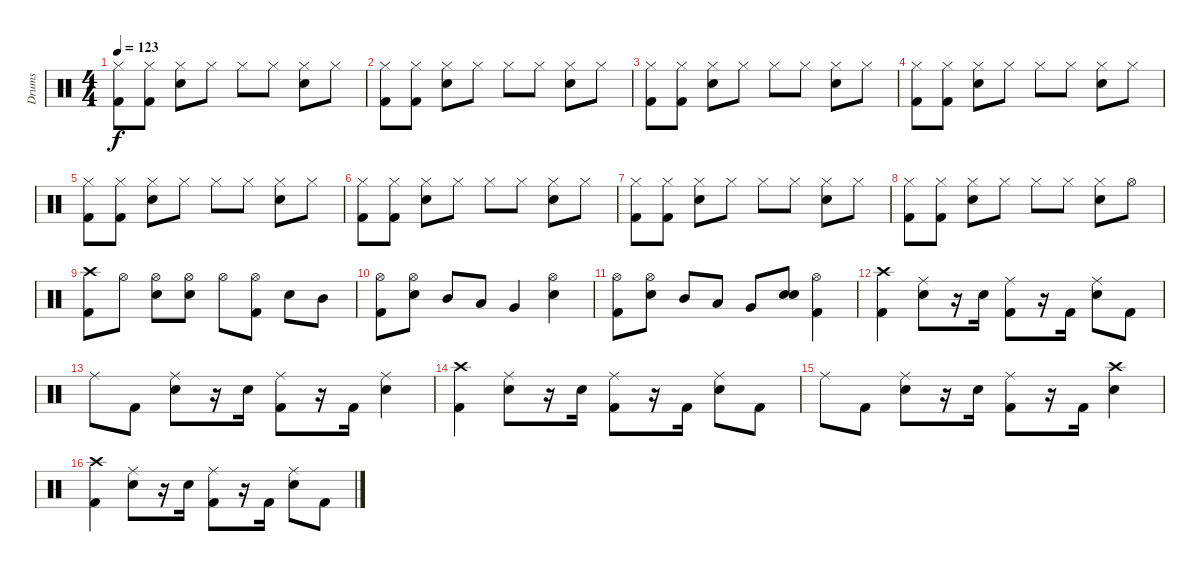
\track ("Drums" "Drums") {instrument percussion}
\staff {score}
\articulation defaults
\ts (4 4)
\tempo 123
\clef neutral
\ks c
("Hi-Hat (closed)" "Kick (hit) 2").8{dy f} ("Hi-Hat (closed)" "Kick (hit) 2").8 ("Hi-Hat (closed)" "Snare (hit) 2").8 "Hi-Hat (closed)".8 "Hi-Hat (closed)".8 "Hi-Hat (closed)".8 ("Hi-Hat (closed)" "Snare (hit) 2").8 "Hi-Hat (closed)".8 |
("Hi-Hat (closed)" "Kick (hit) 2").8 ("Hi-Hat (closed)" "Kick (hit) 2").8 ("Hi-Hat (closed)" "Snare (hit) 2").8 "Hi-Hat (closed)".8 "Hi-Hat (closed)".8 "Hi-Hat (closed)".8 ("Hi-Hat (closed)" "Snare (hit) 2").8 "Hi-Hat (closed)".8 |
("Hi-Hat (closed)" "Kick (hit) 2").8 ("Hi-Hat (closed)" "Kick (hit) 2").8 ("Hi-Hat (closed)" "Snare (hit) 2").8 "Hi-Hat (closed)".8 "Hi-Hat (closed)".8 "Hi-Hat (closed)".8 ("Hi-Hat (closed)" "Snare (hit) 2").8 "Hi-Hat (closed)".8 |
("Hi-Hat (closed)" "Kick (hit) 2").8 ("Hi-Hat (closed)" "Kick (hit) 2").8 ("Hi-Hat (closed)" "Snare (hit) 2").8 "Hi-Hat (closed)".8 "Hi-Hat (closed)".8 "Hi-Hat (closed)".8 ("Hi-Hat (closed)" "Snare (hit) 2").8 "Hi-Hat (closed)".8 |
("Hi-Hat (closed)" "Kick (hit) 2").8 ("Hi-Hat (closed)" "Kick (hit) 2").8 ("Hi-Hat (closed)" "Snare (hit) 2").8 "Hi-Hat (closed)".8 "Hi-Hat (closed)".8 "Hi-Hat (closed)".8 ("Hi-Hat (closed)" "Snare (hit) 2").8 "Hi-Hat (closed)".8 |
("Hi-Hat (closed)" "Kick (hit) 2").8 ("Hi-Hat (closed)" "Kick (hit) 2").8 ("Hi-Hat (closed)" "Snare (hit) 2").8 "Hi-Hat (closed)".8 "Hi-Hat (closed)".8 "Hi-Hat (closed)".8 ("Hi-Hat (closed)" "Snare (hit) 2").8 "Hi-Hat (closed)".8 |
("Hi-Hat (closed)" "Kick (hit) 2").8 ("Hi-Hat (closed)" "Kick (hit) 2").8 ("Hi-Hat (closed)" "Snare (hit) 2").8 "Hi-Hat (closed)".8 "Hi-Hat (closed)".8 "Hi-Hat (closed)".8 ("Hi-Hat (closed)" "Snare (hit) 2").8 "Hi-Hat (closed)".8 |
("Hi-Hat (closed)" "Kick (hit) 2").8 ("Hi-Hat (closed)" "Kick (hit) 2").8 ("Hi-Hat (closed)" "Snare (hit) 2").8 "Hi-Hat (closed)".8 "Hi-Hat (closed)".8 "Hi-Hat (closed)".8 ("Hi-Hat (closed)" "Snare (hit) 2").8 "Hi-Hat (open)".8 |
("Crash high (hit)" "Kick (hit) 2").8 "Hi-Hat (open)".8 ("Hi-Hat (open)" "Snare (hit) 2").8 ("Hi-Hat (open)" "Snare (hit) 2").8 "Hi-Hat (open)".8 ("Hi-Hat (open)" "Kick (hit) 2").8 "Snare (hit) 2".8 "Mid Tom (hit)".8 |
("Hi-Hat (open)" "Kick (hit) 2").8 ("Hi-Hat (open)" "Snare (hit) 2").8 "Mid Tom (hit)".8 "Low Tom (hit)".8 "Very Low Tom (hit)".4 ("Hi-Hat (open)" "Snare (hit) 2").4 |
("Hi-Hat (open)" "Kick (hit) 2").8 ("Hi-Hat (open)" "Snare (hit) 2").8 "Mid Tom (hit)".8 "Low Tom (hit)".8 "Very Low Tom (hit)".8 ("Snare (hit) 2" "Snare (hit) 2").8 ("Hi-Hat (open)" "Kick (hit) 2").4 |
("Crash high (hit)" "Kick (hit) 2").4 ("Ride (middle)" "Snare (hit) 2").8 r.16 "Snare (hit) 2".16 ("Ride (middle)" "Kick (hit) 2").8 r.16 "Kick (hit) 2".16 ("Ride (middle)" "Snare (hit) 2").8 "Kick (hit) 2".8 |
"Ride (middle)".8 "Kick (hit) 2".8 ("Ride (middle)" "Snare (hit) 2").8 r.16 "Snare (hit) 2".16 ("Ride (middle)" "Kick (hit) 2").8 r.16 "Kick (hit) 2".16 ("Ride (middle)" "Snare (hit) 2").4 |
("Crash high (hit)" "Kick (hit) 2").4 ("Ride (middle)" "Snare (hit) 2").8 r.16 "Snare (hit) 2".16 ("Ride (middle)" "Kick (hit) 2").8 r.16 "Kick (hit) 2".16 ("Ride (middle)" "Snare (hit) 2").8 "Kick (hit) 2".8 |
"Ride (middle)".8 "Kick (hit) 2".8 ("Ride (middle)" "Snare (hit) 2").8 r.16 "Snare (hit) 2".16 ("Ride (middle)" "Kick (hit) 2").8 r.16 "Kick (hit) 2".16 ("Crash high (hit)" "Snare (hit) 2").4 |
("Crash high (hit)" "Kick (hit) 2").4 ("Ride (middle)" "Snare (hit) 2").8 r.16 "Snare (hit) 2".16 ("Ride (middle)" "Kick (hit) 2").8 r.16 "Kick (hit) 2".16 ("Ride (middle)" "Snare (hit) 2").8 "Kick (hit) 2".8
